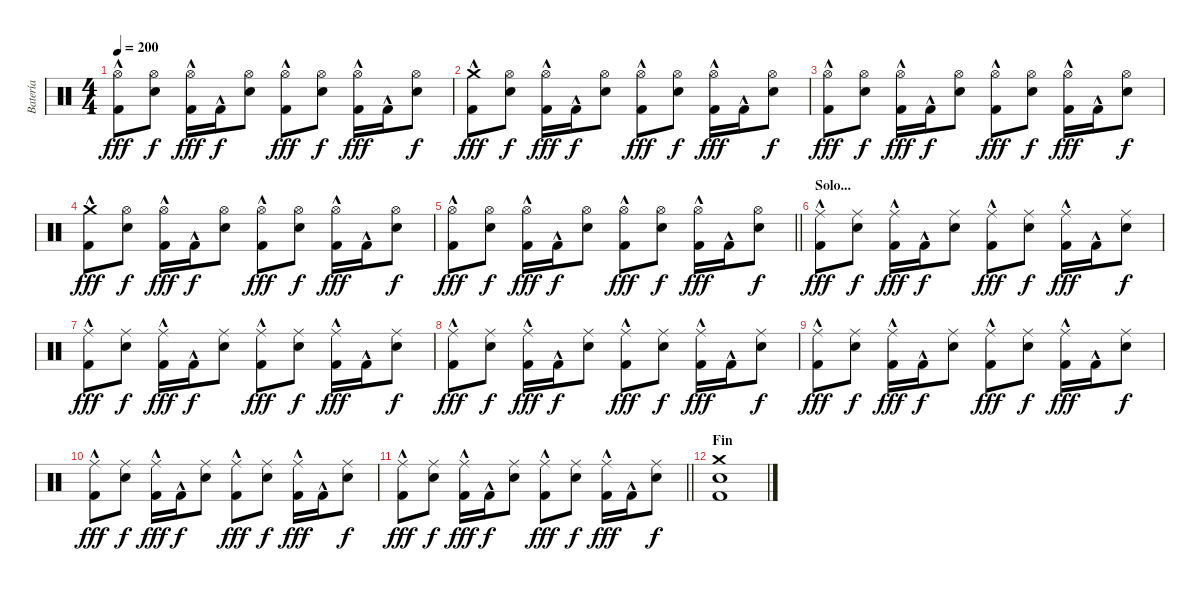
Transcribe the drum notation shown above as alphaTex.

\track ("Batería" "Batería") {instrument percussion}
\staff {score}
\articulation defaults
\ts (4 4)
\tempo 200
\clef neutral
\ks c
("Hi-Hat (open)" "Kick (hit) 2"{hac}).8{dy fff} ("Snare (hit) 2" "Hi-Hat (open)").8{dy f} ("Hi-Hat (open)" "Kick (hit) 2"{hac}).16{dy fff} "Kick (hit) 2"{hac}.16{dy f} ("Snare (hit) 2" "Hi-Hat (open)").8 ("Hi-Hat (open)" "Kick (hit) 2"{hac}).8{dy fff} ("Snare (hit) 2" "Hi-Hat (open)").8{dy f} ("Hi-Hat (open)" "Kick (hit) 2"{hac}).16{dy fff} "Kick (hit) 2"{hac}.16 ("Snare (hit) 2" "Hi-Hat (open)").8{dy f} |
("Crash medium (hit)"{hac} "Kick (hit) 2"{hac}).8{dy fff} ("Snare (hit) 2" "Hi-Hat (open)").8{dy f} ("Hi-Hat (open)" "Kick (hit) 2"{hac}).16{dy fff} "Kick (hit) 2"{hac}.16{dy f} ("Snare (hit) 2" "Hi-Hat (open)").8 ("Hi-Hat (open)" "Kick (hit) 2"{hac}).8{dy fff} ("Snare (hit) 2" "Hi-Hat (open)").8{dy f} ("Hi-Hat (open)" "Kick (hit) 2"{hac}).16{dy fff} "Kick (hit) 2"{hac}.16 ("Snare (hit) 2" "Hi-Hat (open)").8{dy f} |
("Hi-Hat (open)" "Kick (hit) 2"{hac}).8{dy fff} ("Snare (hit) 2" "Hi-Hat (open)").8{dy f} ("Hi-Hat (open)" "Kick (hit) 2"{hac}).16{dy fff} "Kick (hit) 2"{hac}.16{dy f} ("Snare (hit) 2" "Hi-Hat (open)").8 ("Hi-Hat (open)" "Kick (hit) 2"{hac}).8{dy fff} ("Snare (hit) 2" "Hi-Hat (open)").8{dy f} ("Hi-Hat (open)" "Kick (hit) 2"{hac}).16{dy fff} "Kick (hit) 2"{hac}.16 ("Snare (hit) 2" "Hi-Hat (open)").8{dy f} |
("Crash medium (hit)"{hac} "Kick (hit) 2"{hac}).8{dy fff} ("Snare (hit) 2" "Hi-Hat (open)").8{dy f} ("Hi-Hat (open)" "Kick (hit) 2"{hac}).16{dy fff} "Kick (hit) 2"{hac}.16{dy f} ("Snare (hit) 2" "Hi-Hat (open)").8 ("Hi-Hat (open)" "Kick (hit) 2"{hac}).8{dy fff} ("Snare (hit) 2" "Hi-Hat (open)").8{dy f} ("Hi-Hat (open)" "Kick (hit) 2"{hac}).16{dy fff} "Kick (hit) 2"{hac}.16 ("Snare (hit) 2" "Hi-Hat (open)").8{dy f} |
\barLineRight lightlight
("Hi-Hat (open)" "Kick (hit) 2"{hac}).8{dy fff} ("Snare (hit) 2" "Hi-Hat (open)").8{dy f} ("Hi-Hat (open)" "Kick (hit) 2"{hac}).16{dy fff} "Kick (hit) 2"{hac}.16{dy f} ("Snare (hit) 2" "Hi-Hat (open)").8 ("Hi-Hat (open)" "Kick (hit) 2"{hac}).8{dy fff} ("Snare (hit) 2" "Hi-Hat (open)").8{dy f} ("Hi-Hat (open)" "Kick (hit) 2"{hac}).16{dy fff} "Kick (hit) 2"{hac}.16 ("Snare (hit) 2" "Hi-Hat (open)").8{dy f} |
\section ("" "Solo...")
("Ride (middle)" "Kick (hit) 2"{hac}).8{dy fff} ("Snare (hit) 2" "Ride (middle)").8{dy f} ("Ride (middle)" "Kick (hit) 2"{hac}).16{dy fff} "Kick (hit) 2"{hac}.16{dy f} ("Snare (hit) 2" "Ride (middle)").8 ("Ride (middle)" "Kick (hit) 2"{hac}).8{dy fff} ("Snare (hit) 2" "Ride (middle)").8{dy f} ("Ride (middle)" "Kick (hit) 2"{hac}).16{dy fff} "Kick (hit) 2"{hac}.16 ("Snare (hit) 2" "Ride (middle)").8{dy f} |
("Ride (middle)" "Kick (hit) 2"{hac}).8{dy fff} ("Snare (hit) 2" "Ride (middle)").8{dy f} ("Ride (middle)" "Kick (hit) 2"{hac}).16{dy fff} "Kick (hit) 2"{hac}.16{dy f} ("Snare (hit) 2" "Ride (middle)").8 ("Ride (middle)" "Kick (hit) 2"{hac}).8{dy fff} ("Snare (hit) 2" "Ride (middle)").8{dy f} ("Ride (middle)" "Kick (hit) 2"{hac}).16{dy fff} "Kick (hit) 2"{hac}.16 ("Snare (hit) 2" "Ride (middle)").8{dy f} |
("Ride (middle)" "Kick (hit) 2"{hac}).8{dy fff} ("Snare (hit) 2" "Ride (middle)").8{dy f} ("Ride (middle)" "Kick (hit) 2"{hac}).16{dy fff} "Kick (hit) 2"{hac}.16{dy f} ("Snare (hit) 2" "Ride (middle)").8 ("Ride (middle)" "Kick (hit) 2"{hac}).8{dy fff} ("Snare (hit) 2" "Ride (middle)").8{dy f} ("Ride (middle)" "Kick (hit) 2"{hac}).16{dy fff} "Kick (hit) 2"{hac}.16 ("Snare (hit) 2" "Ride (middle)").8{dy f} |
("Ride (middle)" "Kick (hit) 2"{hac}).8{dy fff} ("Snare (hit) 2" "Ride (middle)").8{dy f} ("Ride (middle)" "Kick (hit) 2"{hac}).16{dy fff} "Kick (hit) 2"{hac}.16{dy f} ("Snare (hit) 2" "Ride (middle)").8 ("Ride (middle)" "Kick (hit) 2"{hac}).8{dy fff} ("Snare (hit) 2" "Ride (middle)").8{dy f} ("Ride (middle)" "Kick (hit) 2"{hac}).16{dy fff} "Kick (hit) 2"{hac}.16 ("Snare (hit) 2" "Ride (middle)").8{dy f} |
("Ride (middle)" "Kick (hit) 2"{hac}).8{dy fff} ("Snare (hit) 2" "Ride (middle)").8{dy f} ("Ride (middle)" "Kick (hit) 2"{hac}).16{dy fff} "Kick (hit) 2"{hac}.16{dy f} ("Snare (hit) 2" "Ride (middle)").8 ("Ride (middle)" "Kick (hit) 2"{hac}).8{dy fff} ("Snare (hit) 2" "Ride (middle)").8{dy f} ("Ride (middle)" "Kick (hit) 2"{hac}).16{dy fff} "Kick (hit) 2"{hac}.16 ("Snare (hit) 2" "Ride (middle)").8{dy f} |
\barLineRight lightlight
("Ride (middle)" "Kick (hit) 2"{hac}).8{dy fff} ("Snare (hit) 2" "Ride (middle)").8{dy f} ("Ride (middle)" "Kick (hit) 2"{hac}).16{dy fff} "Kick (hit) 2"{hac}.16{dy f} ("Snare (hit) 2" "Ride (middle)").8 ("Ride (middle)" "Kick (hit) 2"{hac}).8{dy fff} ("Snare (hit) 2" "Ride (middle)").8{dy f} ("Ride (middle)" "Kick (hit) 2"{hac}).16{dy fff} "Kick (hit) 2"{hac}.16 ("Snare (hit) 2" "Ride (middle)").8{dy f} |
\section ("" "Fin")
("Crash medium (hit)" "Snare (hit) 2" "Kick (hit) 2").1
